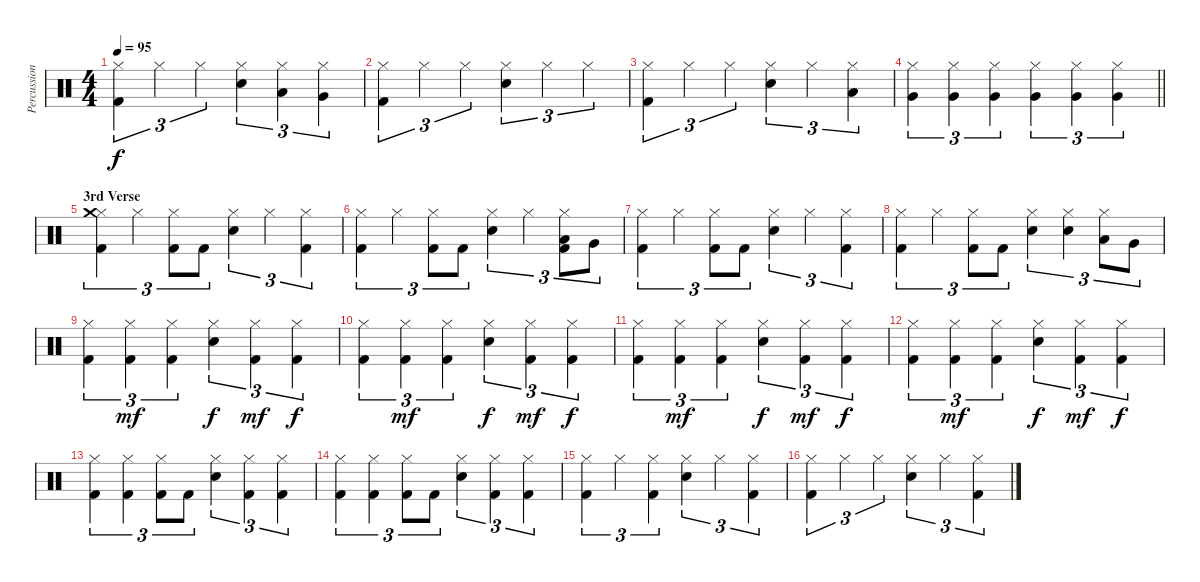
\track ("Percussion" "Percussion") {instrument percussion}
\staff {score}
\articulation defaults
\ts (4 4)
\tempo 95
\clef neutral
\ks c
("Hi-Hat (closed)" "Kick (hit) 2").4{tu (3 2) dy f} "Hi-Hat (closed)".4{tu (3 2)} "Hi-Hat (closed)".4{tu (3 2)} ("Hi-Hat (closed)" "Electric Snare (hit)").4{tu (3 2)} ("Hi-Hat (closed)" "Low Tom (hit)").4{tu (3 2)} ("Hi-Hat (closed)" "Very Low Tom (hit)").4{tu (3 2)} |
("Hi-Hat (closed)" "Kick (hit) 2").4{tu (3 2)} "Hi-Hat (closed)".4{tu (3 2)} "Hi-Hat (closed)".4{tu (3 2)} ("Hi-Hat (closed)" "Electric Snare (hit)").4{tu (3 2)} "Hi-Hat (closed)".4{tu (3 2)} "Hi-Hat (closed)".4{tu (3 2)} |
("Hi-Hat (closed)" "Kick (hit) 2").4{tu (3 2)} "Hi-Hat (closed)".4{tu (3 2)} "Hi-Hat (closed)".4{tu (3 2)} ("Hi-Hat (closed)" "Electric Snare (hit)").4{tu (3 2)} "Hi-Hat (closed)".4{tu (3 2)} ("Hi-Hat (closed)" "Low Tom (hit)").4{tu (3 2)} |
\barLineRight lightlight
("Hi-Hat (closed)" "Very Low Tom (hit)").4{tu (3 2)} ("Hi-Hat (closed)" "Very Low Tom (hit)").4{tu (3 2)} ("Hi-Hat (closed)" "Very Low Tom (hit)").4{tu (3 2)} ("Hi-Hat (closed)" "Very Low Tom (hit)").4{tu (3 2)} ("Hi-Hat (closed)" "Very Low Tom (hit)").4{tu (3 2)} ("Hi-Hat (closed)" "Very Low Tom (hit)").4{tu (3 2)} |
\section ("" "3rd Verse")
("Hi-Hat (closed)" "Crash medium (hit)" "Kick (hit) 2").4{tu (3 2)} "Hi-Hat (closed)".4{tu (3 2)} ("Hi-Hat (closed)" "Kick (hit) 2").8{tu (3 2)} "Kick (hit) 2".8{tu (3 2)} ("Hi-Hat (closed)" "Electric Snare (hit)").4{tu (3 2)} "Hi-Hat (closed)".4{tu (3 2)} ("Hi-Hat (closed)" "Kick (hit) 2").4{tu (3 2)} |
("Hi-Hat (closed)" "Kick (hit) 2").4{tu (3 2)} "Hi-Hat (closed)".4{tu (3 2)} ("Hi-Hat (closed)" "Kick (hit) 2").8{tu (3 2)} "Kick (hit) 2".8{tu (3 2)} ("Hi-Hat (closed)" "Electric Snare (hit)").4{tu (3 2)} "Hi-Hat (closed)".4{tu (3 2)} ("Hi-Hat (closed)" "Low Tom (hit)" "Kick (hit) 2").8{tu (3 2)} "Very Low Tom (hit)".8{tu (3 2)} |
("Hi-Hat (closed)" "Kick (hit) 2").4{tu (3 2)} "Hi-Hat (closed)".4{tu (3 2)} ("Hi-Hat (closed)" "Kick (hit) 2").8{tu (3 2)} "Kick (hit) 2".8{tu (3 2)} ("Hi-Hat (closed)" "Electric Snare (hit)").4{tu (3 2)} "Hi-Hat (closed)".4{tu (3 2)} ("Hi-Hat (closed)" "Kick (hit) 2").4{tu (3 2)} |
("Hi-Hat (closed)" "Kick (hit) 2").4{tu (3 2)} "Hi-Hat (closed)".4{tu (3 2)} ("Hi-Hat (closed)" "Kick (hit) 2").8{tu (3 2)} "Kick (hit) 2".8{tu (3 2)} ("Hi-Hat (closed)" "Electric Snare (hit)").4{tu (3 2)} ("Hi-Hat (closed)" "Electric Snare (hit)").4{tu (3 2)} ("Hi-Hat (closed)" "Low Tom (hit)").8{tu (3 2)} "Very Low Tom (hit)".8{tu (3 2)} |
("Hi-Hat (closed)" "Kick (hit) 2").4{tu (3 2)} ("Hi-Hat (closed)" "Kick (hit) 2").4{tu (3 2) dy mf} ("Hi-Hat (closed)" "Kick (hit) 2").4{tu (3 2)} ("Hi-Hat (closed)" "Electric Snare (hit)").4{tu (3 2) dy f} ("Hi-Hat (closed)" "Kick (hit) 2").4{tu (3 2) dy mf} ("Hi-Hat (closed)" "Kick (hit) 2").4{tu (3 2) dy f} |
("Hi-Hat (closed)" "Kick (hit) 2").4{tu (3 2)} ("Hi-Hat (closed)" "Kick (hit) 2").4{tu (3 2) dy mf} ("Hi-Hat (closed)" "Kick (hit) 2").4{tu (3 2)} ("Hi-Hat (closed)" "Electric Snare (hit)").4{tu (3 2) dy f} ("Hi-Hat (closed)" "Kick (hit) 2").4{tu (3 2) dy mf} ("Hi-Hat (closed)" "Kick (hit) 2").4{tu (3 2) dy f} |
("Hi-Hat (closed)" "Kick (hit) 2").4{tu (3 2)} ("Hi-Hat (closed)" "Kick (hit) 2").4{tu (3 2) dy mf} ("Hi-Hat (closed)" "Kick (hit) 2").4{tu (3 2)} ("Hi-Hat (closed)" "Electric Snare (hit)").4{tu (3 2) dy f} ("Hi-Hat (closed)" "Kick (hit) 2").4{tu (3 2) dy mf} ("Hi-Hat (closed)" "Kick (hit) 2").4{tu (3 2) dy f} |
("Hi-Hat (closed)" "Kick (hit) 2").4{tu (3 2)} ("Hi-Hat (closed)" "Kick (hit) 2").4{tu (3 2) dy mf} ("Hi-Hat (closed)" "Kick (hit) 2").4{tu (3 2)} ("Hi-Hat (closed)" "Electric Snare (hit)").4{tu (3 2) dy f} ("Hi-Hat (closed)" "Kick (hit) 2").4{tu (3 2) dy mf} ("Hi-Hat (closed)" "Kick (hit) 2").4{tu (3 2) dy f} |
("Hi-Hat (closed)" "Kick (hit) 2").4{tu (3 2)} ("Hi-Hat (closed)" "Kick (hit) 2").4{tu (3 2)} ("Hi-Hat (closed)" "Kick (hit) 2").8{tu (3 2)} "Kick (hit) 2".8{tu (3 2)} ("Hi-Hat (closed)" "Electric Snare (hit)").4{tu (3 2)} ("Hi-Hat (closed)" "Kick (hit) 2").4{tu (3 2)} ("Hi-Hat (closed)" "Kick (hit) 2").4{tu (3 2)} |
("Hi-Hat (closed)" "Kick (hit) 2").4{tu (3 2)} ("Hi-Hat (closed)" "Kick (hit) 2").4{tu (3 2)} ("Hi-Hat (closed)" "Kick (hit) 2").8{tu (3 2)} "Kick (hit) 2".8{tu (3 2)} ("Hi-Hat (closed)" "Electric Snare (hit)").4{tu (3 2)} ("Hi-Hat (closed)" "Kick (hit) 2").4{tu (3 2)} ("Hi-Hat (closed)" "Kick (hit) 2").4{tu (3 2)} |
("Hi-Hat (closed)" "Kick (hit) 2").4{tu (3 2)} "Hi-Hat (closed)".4{tu (3 2)} ("Hi-Hat (closed)" "Kick (hit) 2").4{tu (3 2)} ("Hi-Hat (closed)" "Electric Snare (hit)").4{tu (3 2)} "Hi-Hat (closed)".4{tu (3 2)} ("Hi-Hat (closed)" "Kick (hit) 2").4{tu (3 2)} |
("Hi-Hat (closed)" "Kick (hit) 2").4{tu (3 2)} "Hi-Hat (closed)".4{tu (3 2)} "Hi-Hat (closed)".4{tu (3 2)} ("Hi-Hat (closed)" "Electric Snare (hit)").4{tu (3 2)} "Hi-Hat (closed)".4{tu (3 2)} ("Hi-Hat (closed)" "Kick (hit) 2").4{tu (3 2)}
